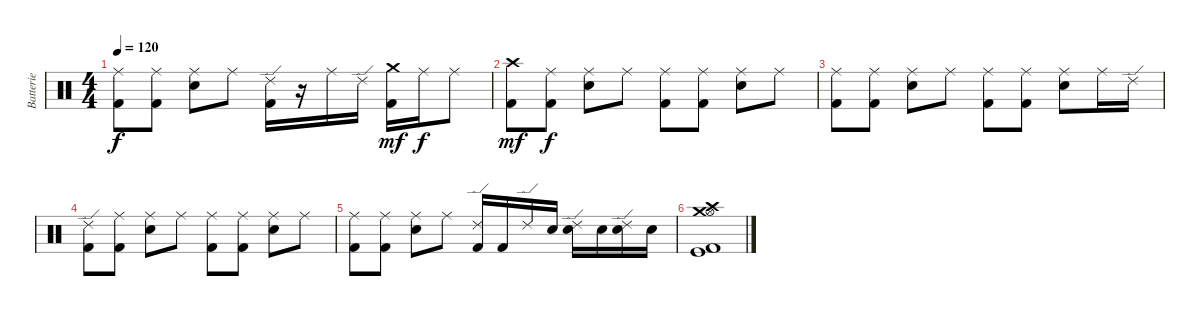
\track ("Batterie" "Batterie") {instrument percussion}
\staff {score}
\articulation defaults
\ts (4 4)
\tempo 120
\clef neutral
\ks c
("Ride (middle)" "Kick (hit) 2").8{dy f} ("Ride (middle)" "Kick (hit) 2").8 ("Ride (middle)" "Snare (hit) 2").8 "Ride (middle)".8 ("Ride (edge) 2" "Kick (hit) 2").16 r.16 "Ride (middle)".16 "Ride (edge) 2".16 ("Crash medium (hit)" "Kick (hit) 2").16{dy mf} "Ride (middle)".16{dy f} "Ride (middle)".8 |
("Crash high (hit)" "Kick (hit) 2").8{dy mf} ("Ride (middle)" "Kick (hit) 2").8{dy f} ("Ride (middle)" "Snare (hit) 2").8 "Ride (middle)".8 ("Ride (middle)" "Kick (hit) 2").8 ("Ride (middle)" "Kick (hit) 2").8 ("Ride (middle)" "Snare (hit) 2").8 "Ride (middle)".8 |
("Ride (middle)" "Kick (hit) 2").8 ("Ride (middle)" "Kick (hit) 2").8 ("Ride (middle)" "Snare (hit) 2").8 "Ride (middle)".8 ("Ride (middle)" "Kick (hit) 2").8 ("Ride (middle)" "Kick (hit) 2").8 ("Ride (middle)" "Snare (hit) 2").8 "Ride (middle)".16 "Ride (edge) 2".16 |
("Ride (edge) 2" "Kick (hit) 2").8 ("Ride (middle)" "Kick (hit) 2").8 ("Ride (middle)" "Snare (hit) 2").8 "Ride (middle)".8 ("Ride (middle)" "Kick (hit) 2").8 ("Ride (middle)" "Kick (hit) 2").8 ("Ride (middle)" "Snare (hit) 2").8 "Ride (middle)".8 |
("Ride (middle)" "Kick (hit) 2").8 ("Ride (middle)" "Kick (hit) 2").8 ("Ride (middle)" "Snare (hit) 2").8 "Ride (middle)".8 ("Ride (edge) 2" "Kick (hit) 2").16 "Kick (hit) 2".16 "Ride (edge) 2".16 "Snare (hit) 2".16 ("Ride (edge) 2" "Snare (hit) 2").16 "Snare (hit) 2".16 ("Ride (edge) 2" "Snare (hit) 2").16 "Snare (hit) 2".16 |
("Crash high (hit)" "Crash medium (hit)" "Hi-Hat (open)" "Kick (hit)" "Kick (hit) 2").1
